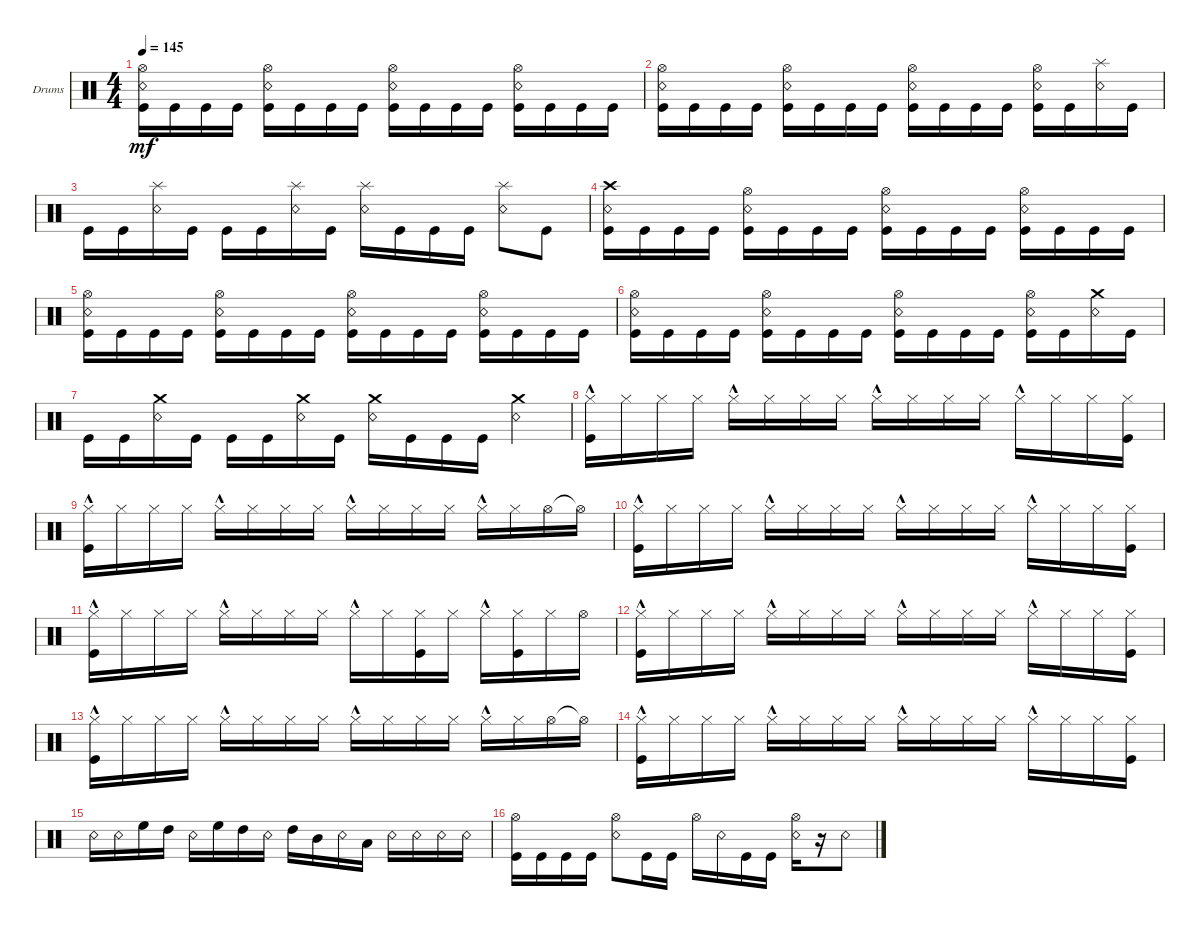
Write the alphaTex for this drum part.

\defaultSystemsLayout 4
\bracketExtendMode groupsimilarinstruments
\firstSystemTrackNameOrientation horizontal
\otherSystemsTrackNameOrientation horizontal
\track ("Drumkit" "Drums") {instrument percussion}
\staff {score}
\articulation defaults
\ts (4 4)
\tempo 145
\clef neutral
\ks c
("Snare (rim shot)" "Kick (hit)" "Hi-Hat (open)").16{dy mf} "Kick (hit)".16 "Kick (hit)".16 "Kick (hit)".16 ("Snare (rim shot)" "Kick (hit)" "Hi-Hat (open)").16 "Kick (hit)".16 "Kick (hit)".16 "Kick (hit)".16 ("Snare (rim shot)" "Kick (hit)" "Hi-Hat (open)").16 "Kick (hit)".16 "Kick (hit)".16 "Kick (hit)".16 ("Snare (rim shot)" "Kick (hit)" "Hi-Hat (open)").16 "Kick (hit)".16 "Kick (hit)".16 "Kick (hit)".16 |
("Snare (rim shot)" "Kick (hit)" "Hi-Hat (open)").16 "Kick (hit)".16 "Kick (hit)".16 "Kick (hit)".16 ("Snare (rim shot)" "Kick (hit)" "Hi-Hat (open)").16 "Kick (hit)".16 "Kick (hit)".16 "Kick (hit)".16 ("Snare (rim shot)" "Kick (hit)" "Hi-Hat (open)").16 "Kick (hit)".16 "Kick (hit)".16 "Kick (hit)".16 ("Snare (rim shot)" "Kick (hit)" "Hi-Hat (open)").16 "Kick (hit)".16 ("Snare (rim shot)" "Splash (hit)").16 "Kick (hit)".16 |
"Kick (hit)".16 "Kick (hit)".16 ("Snare (rim shot)" "Splash (hit)").16 "Kick (hit)".16 "Kick (hit)".16 "Kick (hit)".16 ("Snare (rim shot)" "Splash (hit)").16 "Kick (hit)".16 ("Snare (rim shot)" "Splash (hit)").16 "Kick (hit)".16 "Kick (hit)".16 "Kick (hit)".16 ("Snare (rim shot)" "Splash (hit)").8 "Kick (hit)".8 |
("Snare (rim shot)" "Kick (hit)" "Crash high (hit)").16 "Kick (hit)".16 "Kick (hit)".16 "Kick (hit)".16 ("Snare (rim shot)" "Kick (hit)" "Hi-Hat (open)").16 "Kick (hit)".16 "Kick (hit)".16 "Kick (hit)".16 ("Snare (rim shot)" "Kick (hit)" "Hi-Hat (open)").16 "Kick (hit)".16 "Kick (hit)".16 "Kick (hit)".16 ("Snare (rim shot)" "Kick (hit)" "Hi-Hat (open)").16 "Kick (hit)".16 "Kick (hit)".16 "Kick (hit)".16 |
("Snare (rim shot)" "Kick (hit)" "Hi-Hat (open)").16 "Kick (hit)".16 "Kick (hit)".16 "Kick (hit)".16 ("Snare (rim shot)" "Kick (hit)" "Hi-Hat (open)").16 "Kick (hit)".16 "Kick (hit)".16 "Kick (hit)".16 ("Snare (rim shot)" "Kick (hit)" "Hi-Hat (open)").16 "Kick (hit)".16 "Kick (hit)".16 "Kick (hit)".16 ("Snare (rim shot)" "Kick (hit)" "Hi-Hat (open)").16 "Kick (hit)".16 "Kick (hit)".16 "Kick (hit)".16 |
("Snare (rim shot)" "Kick (hit)" "Hi-Hat (open)").16 "Kick (hit)".16 "Kick (hit)".16 "Kick (hit)".16 ("Snare (rim shot)" "Kick (hit)" "Hi-Hat (open)").16 "Kick (hit)".16 "Kick (hit)".16 "Kick (hit)".16 ("Snare (rim shot)" "Kick (hit)" "Hi-Hat (open)").16 "Kick (hit)".16 "Kick (hit)".16 "Kick (hit)".16 ("Snare (rim shot)" "Kick (hit)" "Hi-Hat (open)").16 "Kick (hit)".16 ("Snare (rim shot)" "Crash medium (hit)").16 "Kick (hit)".16 |
"Kick (hit)".16 "Kick (hit)".16 ("Snare (rim shot)" "Crash medium (hit)").16 "Kick (hit)".16 "Kick (hit)".16 "Kick (hit)".16 ("Snare (rim shot)" "Crash medium (hit)").16 "Kick (hit)".16 ("Snare (rim shot)" "Crash medium (hit)").16 "Kick (hit)".16 "Kick (hit)".16 "Kick (hit)".16 ("Snare (rim shot)" "Crash medium (hit)").4 |
("Hi-Hat (closed)"{hac} "Kick (hit)").16 "Hi-Hat (closed)".16 "Hi-Hat (closed)".16 "Hi-Hat (closed)".16 "Hi-Hat (closed)"{hac}.16 "Hi-Hat (closed)".16 "Hi-Hat (closed)".16 "Hi-Hat (closed)".16 "Hi-Hat (closed)"{hac}.16 "Hi-Hat (closed)".16 "Hi-Hat (closed)".16 "Hi-Hat (closed)".16 "Hi-Hat (closed)"{hac}.16 "Hi-Hat (closed)".16 "Hi-Hat (closed)".16 ("Hi-Hat (closed)" "Kick (hit)").16 |
("Hi-Hat (closed)"{hac} "Kick (hit)").16 "Hi-Hat (closed)".16 "Hi-Hat (closed)".16 "Hi-Hat (closed)".16 "Hi-Hat (closed)"{hac}.16 "Hi-Hat (closed)".16 "Hi-Hat (closed)".16 "Hi-Hat (closed)".16 "Hi-Hat (closed)"{hac}.16 "Hi-Hat (closed)".16 "Hi-Hat (closed)".16 "Hi-Hat (closed)".16 "Hi-Hat (closed)"{hac}.16 "Hi-Hat (closed)".16 "Hi-Hat (open)".16 "Hi-Hat (open)"{t}.16 |
("Hi-Hat (closed)"{hac} "Kick (hit)").16 "Hi-Hat (closed)".16 "Hi-Hat (closed)".16 "Hi-Hat (closed)".16 "Hi-Hat (closed)"{hac}.16 "Hi-Hat (closed)".16 "Hi-Hat (closed)".16 "Hi-Hat (closed)".16 "Hi-Hat (closed)"{hac}.16 "Hi-Hat (closed)".16 "Hi-Hat (closed)".16 "Hi-Hat (closed)".16 "Hi-Hat (closed)"{hac}.16 "Hi-Hat (closed)".16 "Hi-Hat (closed)".16 ("Hi-Hat (closed)" "Kick (hit)").16 |
("Hi-Hat (closed)"{hac} "Kick (hit)").16 "Hi-Hat (closed)".16 "Hi-Hat (closed)".16 "Hi-Hat (closed)".16 "Hi-Hat (closed)"{hac}.16 "Hi-Hat (closed)".16 "Hi-Hat (closed)".16 "Hi-Hat (closed)".16 "Hi-Hat (closed)"{hac}.16 "Hi-Hat (closed)".16 ("Hi-Hat (closed)" "Kick (hit)").16 "Hi-Hat (closed)".16 "Hi-Hat (closed)"{hac}.16 ("Hi-Hat (closed)" "Kick (hit)").16 "Hi-Hat (closed)".16 "Hi-Hat (open)".16 |
("Hi-Hat (closed)"{hac} "Kick (hit)").16 "Hi-Hat (closed)".16 "Hi-Hat (closed)".16 "Hi-Hat (closed)".16 "Hi-Hat (closed)"{hac}.16 "Hi-Hat (closed)".16 "Hi-Hat (closed)".16 "Hi-Hat (closed)".16 "Hi-Hat (closed)"{hac}.16 "Hi-Hat (closed)".16 "Hi-Hat (closed)".16 "Hi-Hat (closed)".16 "Hi-Hat (closed)"{hac}.16 "Hi-Hat (closed)".16 "Hi-Hat (closed)".16 ("Hi-Hat (closed)" "Kick (hit)").16 |
("Hi-Hat (closed)"{hac} "Kick (hit)").16 "Hi-Hat (closed)".16 "Hi-Hat (closed)".16 "Hi-Hat (closed)".16 "Hi-Hat (closed)"{hac}.16 "Hi-Hat (closed)".16 "Hi-Hat (closed)".16 "Hi-Hat (closed)".16 "Hi-Hat (closed)"{hac}.16 "Hi-Hat (closed)".16 "Hi-Hat (closed)".16 "Hi-Hat (closed)".16 "Hi-Hat (closed)"{hac}.16 "Hi-Hat (closed)".16 "Hi-Hat (open)".16 "Hi-Hat (open)"{t}.16 |
("Hi-Hat (closed)"{hac} "Kick (hit)").16 "Hi-Hat (closed)".16 "Hi-Hat (closed)".16 "Hi-Hat (closed)".16 "Hi-Hat (closed)"{hac}.16 "Hi-Hat (closed)".16 "Hi-Hat (closed)".16 "Hi-Hat (closed)".16 "Hi-Hat (closed)"{hac}.16 "Hi-Hat (closed)".16 "Hi-Hat (closed)".16 "Hi-Hat (closed)".16 "Hi-Hat (closed)"{hac}.16 "Hi-Hat (closed)".16 "Hi-Hat (closed)".16 ("Hi-Hat (closed)" "Kick (hit)").16 |
"Snare (rim shot)".16 "Snare (rim shot)".16 "High Floor Tom (hit)".16 "High Tom (hit)".16 "Snare (rim shot)".16 "High Floor Tom (hit)".16 "High Tom (hit)".16 "Snare (rim shot)".16 "High Tom (hit)".16 "Mid Tom (hit)".16 "Snare (rim shot)".16 "Low Tom (hit)".16 "Snare (rim shot)".16 "Snare (rim shot)".16 "Snare (rim shot)".16 "Snare (rim shot)".16 |
("Kick (hit)" "Hi-Hat (open)").16 "Kick (hit)".16 "Kick (hit)".16 "Kick (hit)".16 ("Hi-Hat (open)" "Snare (rim shot)").8 "Kick (hit)".16 "Kick (hit)".16 "Hi-Hat (open)".16 "Snare (rim shot)".16 "Kick (hit)".16 "Kick (hit)".16 ("Snare (rim shot)" "Hi-Hat (open)").16 r.16 "Snare (rim shot)".8
